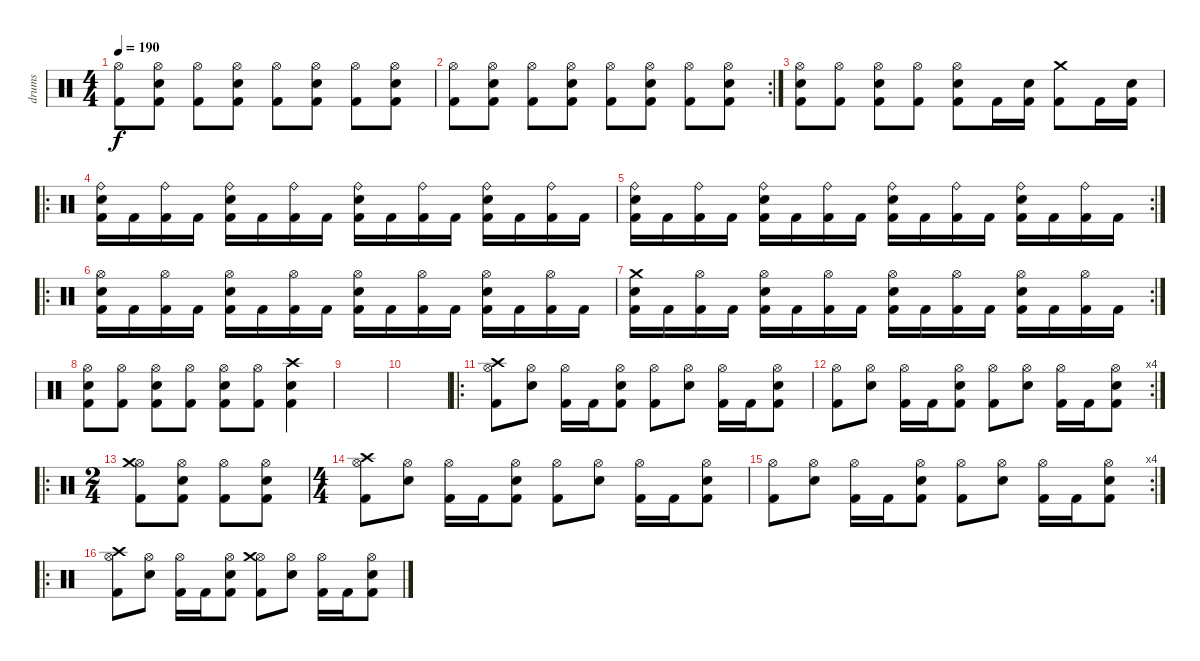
\track ("drums" "drums") {instrument percussion}
\staff {score}
\articulation defaults
\ts (4 4)
\tempo 190
\clef neutral
\ks c
("Hi-Hat (open)" "Kick (hit) 2").8{dy f} ("Hi-Hat (open)" "Snare (hit) 2" "Kick (hit) 2").8 ("Hi-Hat (open)" "Kick (hit) 2").8 ("Hi-Hat (open)" "Snare (hit) 2" "Kick (hit) 2").8 ("Hi-Hat (open)" "Kick (hit) 2").8 ("Hi-Hat (open)" "Snare (hit) 2" "Kick (hit) 2").8 ("Hi-Hat (open)" "Kick (hit) 2").8 ("Hi-Hat (open)" "Snare (hit) 2" "Kick (hit) 2").8 |
\rc 2
("Hi-Hat (open)" "Kick (hit) 2").8 ("Hi-Hat (open)" "Snare (hit) 2" "Kick (hit) 2").8 ("Hi-Hat (open)" "Kick (hit) 2").8 ("Hi-Hat (open)" "Snare (hit) 2" "Kick (hit) 2").8 ("Hi-Hat (open)" "Kick (hit) 2").8 ("Hi-Hat (open)" "Snare (hit) 2" "Kick (hit) 2").8 ("Hi-Hat (open)" "Kick (hit) 2").8 ("Hi-Hat (open)" "Snare (hit) 2" "Kick (hit) 2").8 |
("Hi-Hat (open)" "Snare (hit) 2" "Kick (hit) 2").8 ("Hi-Hat (open)" "Kick (hit) 2").8 ("Hi-Hat (open)" "Snare (hit) 2" "Kick (hit) 2").8 ("Hi-Hat (open)" "Kick (hit) 2").8 ("Hi-Hat (open)" "Snare (hit) 2" "Kick (hit) 2").8 "Kick (hit) 2".16 ("Snare (hit) 2" "Kick (hit) 2").16 ("Crash medium (hit)" "Kick (hit) 2").8 "Kick (hit) 2".16 ("Snare (hit) 2" "Kick (hit) 2").16 |
\ro
("Ride (bell)" "Snare (hit) 2" "Kick (hit) 2").16 "Kick (hit) 2".16 ("Ride (bell)" "Kick (hit) 2").16 "Kick (hit) 2".16 ("Ride (bell)" "Snare (hit) 2" "Kick (hit) 2").16 "Kick (hit) 2".16 ("Ride (bell)" "Kick (hit) 2").16 "Kick (hit) 2".16 ("Ride (bell)" "Snare (hit) 2" "Kick (hit) 2").16 "Kick (hit) 2".16 ("Ride (bell)" "Kick (hit) 2").16 "Kick (hit) 2".16 ("Ride (bell)" "Snare (hit) 2" "Kick (hit) 2").16 "Kick (hit) 2".16 ("Ride (bell)" "Kick (hit) 2").16 "Kick (hit) 2".16 |
\rc 2
("Ride (bell)" "Snare (hit) 2" "Kick (hit) 2").16 "Kick (hit) 2".16 ("Ride (bell)" "Kick (hit) 2").16 "Kick (hit) 2".16 ("Ride (bell)" "Snare (hit) 2" "Kick (hit) 2").16 "Kick (hit) 2".16 ("Ride (bell)" "Kick (hit) 2").16 "Kick (hit) 2".16 ("Ride (bell)" "Snare (hit) 2" "Kick (hit) 2").16 "Kick (hit) 2".16 ("Ride (bell)" "Kick (hit) 2").16 "Kick (hit) 2".16 ("Ride (bell)" "Snare (hit) 2" "Kick (hit) 2").16 "Kick (hit) 2".16 ("Ride (bell)" "Kick (hit) 2").16 "Kick (hit) 2".16 |
\ro
("Hi-Hat (open)" "Snare (hit) 2" "Kick (hit) 2").16 "Kick (hit) 2".16 ("Hi-Hat (open)" "Kick (hit) 2").16 "Kick (hit) 2".16 ("Hi-Hat (open)" "Snare (hit) 2" "Kick (hit) 2").16 "Kick (hit) 2".16 ("Hi-Hat (open)" "Kick (hit) 2").16 "Kick (hit) 2".16 ("Hi-Hat (open)" "Snare (hit) 2" "Kick (hit) 2").16 "Kick (hit) 2".16 ("Hi-Hat (open)" "Kick (hit) 2").16 "Kick (hit) 2".16 ("Hi-Hat (open)" "Snare (hit) 2" "Kick (hit) 2").16 "Kick (hit) 2".16 ("Hi-Hat (open)" "Kick (hit) 2").16 "Kick (hit) 2".16 |
\rc 2
("Crash medium (hit)" "Snare (hit) 2" "Kick (hit) 2").16 "Kick (hit) 2".16 ("Hi-Hat (open)" "Kick (hit) 2").16 "Kick (hit) 2".16 ("Hi-Hat (open)" "Snare (hit) 2" "Kick (hit) 2").16 "Kick (hit) 2".16 ("Hi-Hat (open)" "Kick (hit) 2").16 "Kick (hit) 2".16 ("Hi-Hat (open)" "Snare (hit) 2" "Kick (hit) 2").16 "Kick (hit) 2".16 ("Hi-Hat (open)" "Kick (hit) 2").16 "Kick (hit) 2".16 ("Hi-Hat (open)" "Snare (hit) 2" "Kick (hit) 2").16 "Kick (hit) 2".16 ("Hi-Hat (open)" "Kick (hit) 2").16 "Kick (hit) 2".16 |
("Hi-Hat (open)" "Snare (hit) 2" "Kick (hit) 2").8 ("Hi-Hat (open)" "Kick (hit) 2").8 ("Hi-Hat (open)" "Snare (hit) 2" "Kick (hit) 2").8 ("Hi-Hat (open)" "Kick (hit) 2").8 ("Hi-Hat (open)" "Snare (hit) 2" "Kick (hit) 2").8 ("Hi-Hat (open)" "Kick (hit) 2").8 ("Crash high (hit)" "Snare (hit) 2" "Kick (hit) 2").4 |
|
|
\ro
("Hi-Hat (open)" "Crash high (hit)" "Kick (hit) 2").8 ("Hi-Hat (open)" "Snare (hit) 2").8 ("Hi-Hat (open)" "Kick (hit) 2").16 "Kick (hit) 2".16 ("Hi-Hat (open)" "Snare (hit) 2" "Kick (hit) 2").8 ("Hi-Hat (open)" "Kick (hit) 2").8 ("Hi-Hat (open)" "Snare (hit) 2").8 ("Hi-Hat (open)" "Kick (hit) 2").16 "Kick (hit) 2".16 ("Hi-Hat (open)" "Snare (hit) 2" "Kick (hit) 2").8 |
\rc 4
("Hi-Hat (open)" "Kick (hit) 2").8 ("Hi-Hat (open)" "Snare (hit) 2").8 ("Hi-Hat (open)" "Kick (hit) 2").16 "Kick (hit) 2".16 ("Hi-Hat (open)" "Snare (hit) 2" "Kick (hit) 2").8 ("Hi-Hat (open)" "Kick (hit) 2").8 ("Hi-Hat (open)" "Snare (hit) 2").8 ("Hi-Hat (open)" "Kick (hit) 2").16 "Kick (hit) 2".16 ("Hi-Hat (open)" "Snare (hit) 2" "Kick (hit) 2").8 |
\ro
\ts (2 4)
("Hi-Hat (open)" "Crash medium (hit)" "Kick (hit) 2").8 ("Hi-Hat (open)" "Snare (hit) 2" "Kick (hit) 2").8 ("Hi-Hat (open)" "Kick (hit) 2").8 ("Hi-Hat (open)" "Snare (hit) 2" "Kick (hit) 2").8 |
\ts (4 4)
("Hi-Hat (open)" "Crash high (hit)" "Kick (hit) 2").8 ("Hi-Hat (open)" "Snare (hit) 2").8 ("Hi-Hat (open)" "Kick (hit) 2").16 "Kick (hit) 2".16 ("Hi-Hat (open)" "Snare (hit) 2" "Kick (hit) 2").8 ("Hi-Hat (open)" "Kick (hit) 2").8 ("Hi-Hat (open)" "Snare (hit) 2").8 ("Hi-Hat (open)" "Kick (hit) 2").16 "Kick (hit) 2".16 ("Hi-Hat (open)" "Snare (hit) 2" "Kick (hit) 2").8 |
\rc 4
("Hi-Hat (open)" "Kick (hit) 2").8 ("Hi-Hat (open)" "Snare (hit) 2").8 ("Hi-Hat (open)" "Kick (hit) 2").16 "Kick (hit) 2".16 ("Hi-Hat (open)" "Snare (hit) 2" "Kick (hit) 2").8 ("Hi-Hat (open)" "Kick (hit) 2").8 ("Hi-Hat (open)" "Snare (hit) 2").8 ("Hi-Hat (open)" "Kick (hit) 2").16 "Kick (hit) 2".16 ("Hi-Hat (open)" "Snare (hit) 2" "Kick (hit) 2").8 |
\ro
("Hi-Hat (open)" "Crash high (hit)" "Kick (hit) 2").8 ("Hi-Hat (open)" "Snare (hit) 2").8 ("Hi-Hat (open)" "Kick (hit) 2").16 "Kick (hit) 2".16 ("Hi-Hat (open)" "Snare (hit) 2" "Kick (hit) 2").8 ("Hi-Hat (open)" "Crash medium (hit)" "Kick (hit) 2").8 ("Hi-Hat (open)" "Snare (hit) 2").8 ("Hi-Hat (open)" "Kick (hit) 2").16 "Kick (hit) 2".16 ("Hi-Hat (open)" "Snare (hit) 2" "Kick (hit) 2").8
